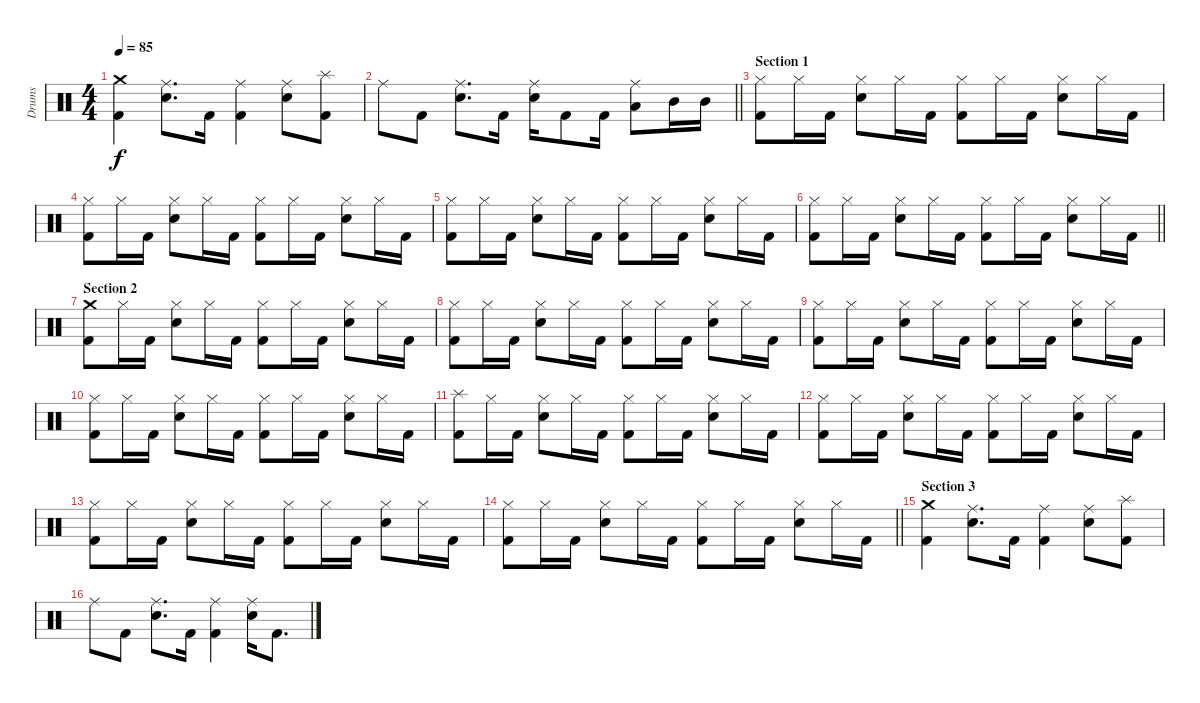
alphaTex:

\track ("Drums" "Drums") {instrument percussion}
\staff {score}
\articulation defaults
\ts (4 4)
\tempo 85
\clef neutral
\ks c
("Crash medium (hit)" "Kick (hit) 2").4{dy f} ("Ride (middle)" "Snare (hit) 2").8{d} "Kick (hit) 2".16 ("Ride (middle)" "Kick (hit) 2").4 ("Ride (middle)" "Snare (hit) 2").8 ("Splash (hit)" "Kick (hit) 2").8 |
\barLineRight lightlight "Ride (middle)".8 "Kick (hit) 2".8
("Ride (middle)" "Snare (hit) 2").8{d} "Kick (hit) 2".16 ("Ride (middle)" "Snare (hit) 2").16 "Kick (hit) 2".8 "Kick (hit) 2".16 ("Ride (middle)" "Low Tom (hit)").8 "Mid Tom (hit)".16 "Mid Tom (hit)".16 |
\section ("" "Section 1")
("Hi-Hat (closed)" "Kick (hit) 2").8 "Hi-Hat (closed)".16 "Kick (hit) 2".16 ("Hi-Hat (closed)" "Snare (hit) 2").8 "Hi-Hat (closed)".16 "Kick (hit) 2".16 ("Hi-Hat (closed)" "Kick (hit) 2").8 "Hi-Hat (closed)".16 "Kick (hit) 2".16 ("Hi-Hat (closed)" "Snare (hit) 2").8 "Hi-Hat (closed)".16 "Kick (hit) 2".16 |
("Hi-Hat (closed)" "Kick (hit) 2").8 "Hi-Hat (closed)".16 "Kick (hit) 2".16 ("Hi-Hat (closed)" "Snare (hit) 2").8 "Hi-Hat (closed)".16 "Kick (hit) 2".16 ("Hi-Hat (closed)" "Kick (hit) 2").8 "Hi-Hat (closed)".16 "Kick (hit) 2".16 ("Hi-Hat (closed)" "Snare (hit) 2").8 "Hi-Hat (closed)".16 "Kick (hit) 2".16 |
("Hi-Hat (closed)" "Kick (hit) 2").8 "Hi-Hat (closed)".16 "Kick (hit) 2".16 ("Hi-Hat (closed)" "Snare (hit) 2").8 "Hi-Hat (closed)".16 "Kick (hit) 2".16 ("Hi-Hat (closed)" "Kick (hit) 2").8 "Hi-Hat (closed)".16 "Kick (hit) 2".16 ("Hi-Hat (closed)" "Snare (hit) 2").8 "Hi-Hat (closed)".16 "Kick (hit) 2".16 |
\barLineRight lightlight
("Hi-Hat (closed)" "Kick (hit) 2").8 "Hi-Hat (closed)".16 "Kick (hit) 2".16 ("Hi-Hat (closed)" "Snare (hit) 2").8 "Hi-Hat (closed)".16 "Kick (hit) 2".16 ("Hi-Hat (closed)" "Kick (hit) 2").8 "Hi-Hat (closed)".16 "Kick (hit) 2".16 ("Hi-Hat (closed)" "Snare (hit) 2").8 "Hi-Hat (closed)".16 "Kick (hit) 2".16 |
\section ("" "Section 2")
("Crash medium (hit)" "Kick (hit) 2").8 "Hi-Hat (closed)".16 "Kick (hit) 2".16 ("Hi-Hat (closed)" "Snare (hit) 2").8 "Hi-Hat (closed)".16 "Kick (hit) 2".16 ("Hi-Hat (closed)" "Kick (hit) 2").8 "Hi-Hat (closed)".16 "Kick (hit) 2".16 ("Hi-Hat (closed)" "Snare (hit) 2").8 "Hi-Hat (closed)".16 "Kick (hit) 2".16 |
("Hi-Hat (closed)" "Kick (hit) 2").8 "Hi-Hat (closed)".16 "Kick (hit) 2".16 ("Hi-Hat (closed)" "Snare (hit) 2").8 "Hi-Hat (closed)".16 "Kick (hit) 2".16 ("Hi-Hat (closed)" "Kick (hit) 2").8 "Hi-Hat (closed)".16 "Kick (hit) 2".16 ("Hi-Hat (closed)" "Snare (hit) 2").8 "Hi-Hat (closed)".16 "Kick (hit) 2".16 |
("Hi-Hat (closed)" "Kick (hit) 2").8 "Hi-Hat (closed)".16 "Kick (hit) 2".16 ("Hi-Hat (closed)" "Snare (hit) 2").8 "Hi-Hat (closed)".16 "Kick (hit) 2".16 ("Hi-Hat (closed)" "Kick (hit) 2").8 "Hi-Hat (closed)".16 "Kick (hit) 2".16 ("Hi-Hat (closed)" "Snare (hit) 2").8 "Hi-Hat (closed)".16 "Kick (hit) 2".16 |
("Hi-Hat (closed)" "Kick (hit) 2").8 "Hi-Hat (closed)".16 "Kick (hit) 2".16 ("Hi-Hat (closed)" "Snare (hit) 2").8 "Hi-Hat (closed)".16 "Kick (hit) 2".16 ("Hi-Hat (closed)" "Kick (hit) 2").8 "Hi-Hat (closed)".16 "Kick (hit) 2".16 ("Hi-Hat (closed)" "Snare (hit) 2").8 "Hi-Hat (closed)".16 "Kick (hit) 2".16 |
("Splash (hit)" "Kick (hit) 2").8 "Hi-Hat (closed)".16 "Kick (hit) 2".16 ("Hi-Hat (closed)" "Snare (hit) 2").8 "Hi-Hat (closed)".16 "Kick (hit) 2".16 ("Hi-Hat (closed)" "Kick (hit) 2").8 "Hi-Hat (closed)".16 "Kick (hit) 2".16 ("Hi-Hat (closed)" "Snare (hit) 2").8 "Hi-Hat (closed)".16 "Kick (hit) 2".16 |
("Hi-Hat (closed)" "Kick (hit) 2").8 "Hi-Hat (closed)".16 "Kick (hit) 2".16 ("Hi-Hat (closed)" "Snare (hit) 2").8 "Hi-Hat (closed)".16 "Kick (hit) 2".16 ("Hi-Hat (closed)" "Kick (hit) 2").8 "Hi-Hat (closed)".16 "Kick (hit) 2".16 ("Hi-Hat (closed)" "Snare (hit) 2").8 "Hi-Hat (closed)".16 "Kick (hit) 2".16 |
("Hi-Hat (closed)" "Kick (hit) 2").8 "Hi-Hat (closed)".16 "Kick (hit) 2".16 ("Hi-Hat (closed)" "Snare (hit) 2").8 "Hi-Hat (closed)".16 "Kick (hit) 2".16 ("Hi-Hat (closed)" "Kick (hit) 2").8 "Hi-Hat (closed)".16 "Kick (hit) 2".16 ("Hi-Hat (closed)" "Snare (hit) 2").8 "Hi-Hat (closed)".16 "Kick (hit) 2".16 |
\barLineRight lightlight
("Hi-Hat (closed)" "Kick (hit) 2").8 "Hi-Hat (closed)".16 "Kick (hit) 2".16 ("Hi-Hat (closed)" "Snare (hit) 2").8 "Hi-Hat (closed)".16 "Kick (hit) 2".16 ("Hi-Hat (closed)" "Kick (hit) 2").8 "Hi-Hat (closed)".16 "Kick (hit) 2".16 ("Hi-Hat (closed)" "Snare (hit) 2").8 "Hi-Hat (closed)".16 "Kick (hit) 2".16 |
\section ("" "Section 3")
("Crash medium (hit)" "Kick (hit) 2").4 ("Ride (middle)" "Snare (hit) 2").8{d} "Kick (hit) 2".16 ("Ride (middle)" "Kick (hit) 2").4 ("Ride (middle)" "Snare (hit) 2").8 ("Splash (hit)" "Kick (hit) 2").8 |
"Ride (middle)".8 "Kick (hit) 2".8 ("Ride (middle)" "Snare (hit) 2").8{d} "Kick (hit) 2".16 ("Ride (middle)" "Kick (hit) 2").4 ("Ride (middle)" "Snare (hit) 2").16 "Kick (hit) 2".8{d}
